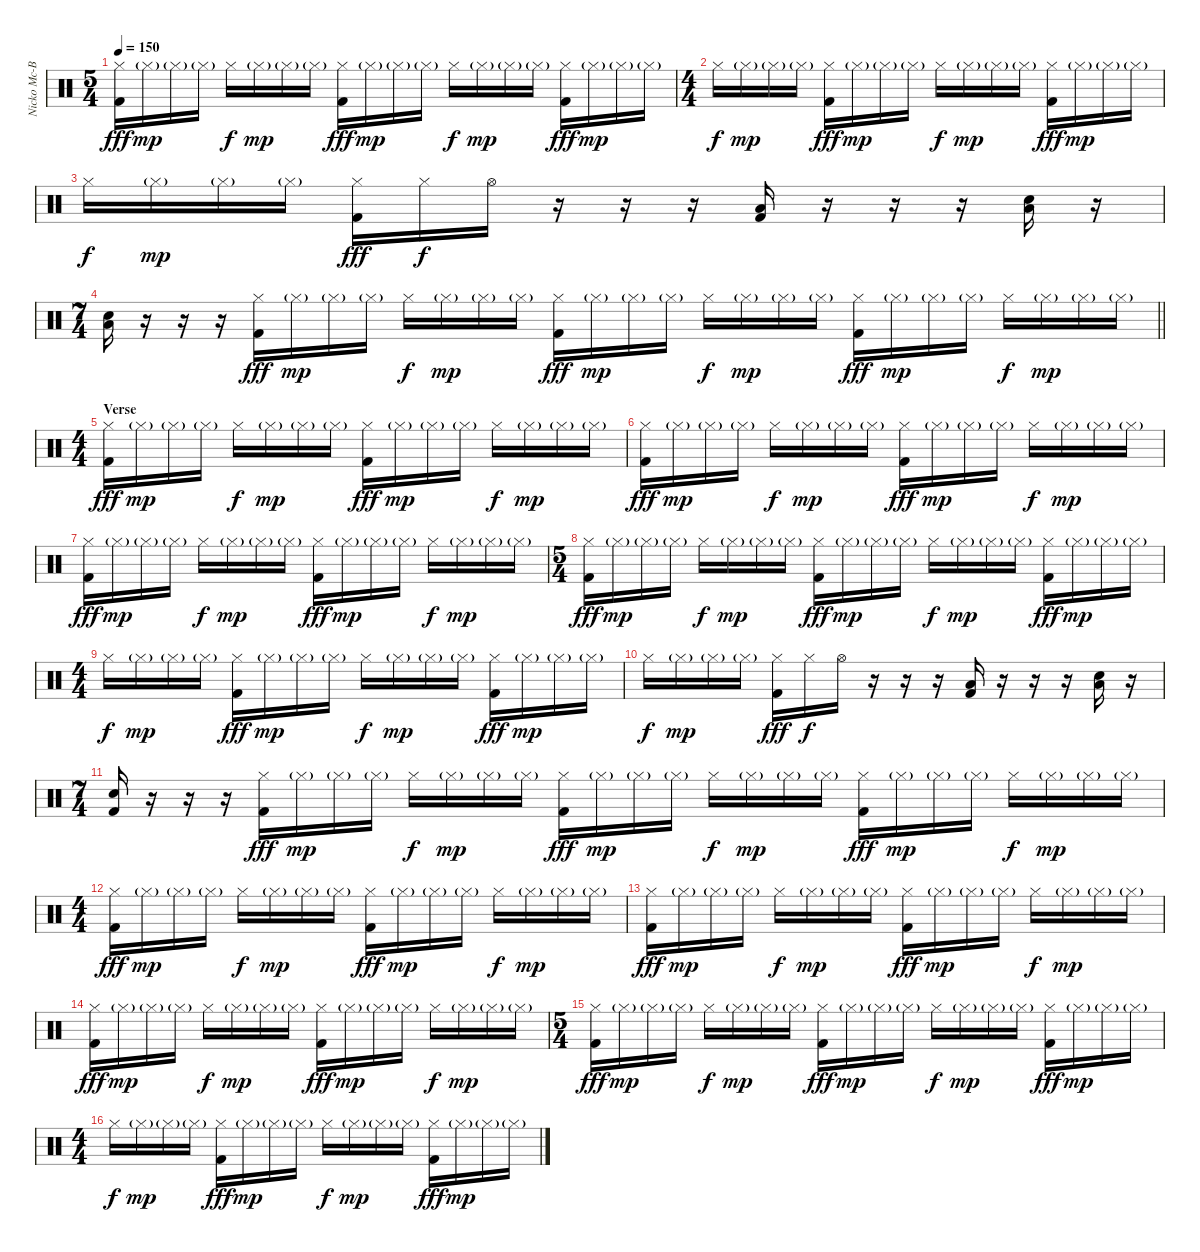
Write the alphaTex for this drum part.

\track ("Nicko Mc-Brain" "Nicko Mc-B") {instrument percussion}
\staff {score}
\articulation defaults
\ts (5 4)
\tempo 150
\clef neutral
\ks c
("Hi-Hat (closed)" "Kick (hit) 2").16{dy fff} "Hi-Hat (closed)"{g}.16{dy mp} "Hi-Hat (closed)"{g}.16 "Hi-Hat (closed)"{g}.16 "Hi-Hat (closed)".16{dy f} "Hi-Hat (closed)"{g}.16{dy mp} "Hi-Hat (closed)"{g}.16 "Hi-Hat (closed)"{g}.16 ("Hi-Hat (closed)" "Kick (hit) 2").16{dy fff} "Hi-Hat (closed)"{g}.16{dy mp} "Hi-Hat (closed)"{g}.16 "Hi-Hat (closed)"{g}.16 "Hi-Hat (closed)".16{dy f} "Hi-Hat (closed)"{g}.16{dy mp} "Hi-Hat (closed)"{g}.16 "Hi-Hat (closed)"{g}.16 ("Hi-Hat (closed)" "Kick (hit) 2").16{dy fff} "Hi-Hat (closed)"{g}.16{dy mp} "Hi-Hat (closed)"{g}.16 "Hi-Hat (closed)"{g}.16 |
\ts (4 4)
"Hi-Hat (closed)".16{dy f} "Hi-Hat (closed)"{g}.16{dy mp} "Hi-Hat (closed)"{g}.16 "Hi-Hat (closed)"{g}.16 ("Hi-Hat (closed)" "Kick (hit) 2").16{dy fff} "Hi-Hat (closed)"{g}.16{dy mp} "Hi-Hat (closed)"{g}.16 "Hi-Hat (closed)"{g}.16 "Hi-Hat (closed)".16{dy f} "Hi-Hat (closed)"{g}.16{dy mp} "Hi-Hat (closed)"{g}.16 "Hi-Hat (closed)"{g}.16 ("Hi-Hat (closed)" "Kick (hit) 2").16{dy fff} "Hi-Hat (closed)"{g}.16{dy mp} "Hi-Hat (closed)"{g}.16 "Hi-Hat (closed)"{g}.16 |
"Hi-Hat (closed)".16{dy f} "Hi-Hat (closed)"{g}.16{dy mp} "Hi-Hat (closed)"{g}.16 "Hi-Hat (closed)"{g}.16 ("Hi-Hat (closed)" "Kick (hit) 2").16{dy fff} "Hi-Hat (closed)".16{dy f} "Hi-Hat (open)".16 r.16 r.16 r.16 ("Low Floor Tom (hit)" "Kick (hit) 2").16 r.16 r.16 r.16 ("Low Floor Tom (hit)" "Snare (hit) 2").16 r.16 |
\ts (7 4)
\barLineRight lightlight
("Low Floor Tom (hit)" "Snare (hit) 2").16 r.16 r.16 r.16 ("Hi-Hat (closed)" "Kick (hit) 2").16{dy fff} "Hi-Hat (closed)"{g}.16{dy mp} "Hi-Hat (closed)"{g}.16 "Hi-Hat (closed)"{g}.16 "Hi-Hat (closed)".16{dy f} "Hi-Hat (closed)"{g}.16{dy mp} "Hi-Hat (closed)"{g}.16 "Hi-Hat (closed)"{g}.16 ("Hi-Hat (closed)" "Kick (hit) 2").16{dy fff} "Hi-Hat (closed)"{g}.16{dy mp} "Hi-Hat (closed)"{g}.16 "Hi-Hat (closed)"{g}.16 "Hi-Hat (closed)".16{dy f} "Hi-Hat (closed)"{g}.16{dy mp} "Hi-Hat (closed)"{g}.16 "Hi-Hat (closed)"{g}.16 ("Hi-Hat (closed)" "Kick (hit) 2").16{dy fff} "Hi-Hat (closed)"{g}.16{dy mp} "Hi-Hat (closed)"{g}.16 "Hi-Hat (closed)"{g}.16 "Hi-Hat (closed)".16{dy f} "Hi-Hat (closed)"{g}.16{dy mp} "Hi-Hat (closed)"{g}.16 "Hi-Hat (closed)"{g}.16 |
\ts (4 4)
\section ("" "Verse")
("Hi-Hat (closed)" "Kick (hit) 2").16{dy fff} "Hi-Hat (closed)"{g}.16{dy mp} "Hi-Hat (closed)"{g}.16 "Hi-Hat (closed)"{g}.16 "Hi-Hat (closed)".16{dy f} "Hi-Hat (closed)"{g}.16{dy mp} "Hi-Hat (closed)"{g}.16 "Hi-Hat (closed)"{g}.16 ("Hi-Hat (closed)" "Kick (hit) 2").16{dy fff} "Hi-Hat (closed)"{g}.16{dy mp} "Hi-Hat (closed)"{g}.16 "Hi-Hat (closed)"{g}.16 "Hi-Hat (closed)".16{dy f} "Hi-Hat (closed)"{g}.16{dy mp} "Hi-Hat (closed)"{g}.16 "Hi-Hat (closed)"{g}.16 |
("Hi-Hat (closed)" "Kick (hit) 2").16{dy fff} "Hi-Hat (closed)"{g}.16{dy mp} "Hi-Hat (closed)"{g}.16 "Hi-Hat (closed)"{g}.16 "Hi-Hat (closed)".16{dy f} "Hi-Hat (closed)"{g}.16{dy mp} "Hi-Hat (closed)"{g}.16 "Hi-Hat (closed)"{g}.16 ("Hi-Hat (closed)" "Kick (hit) 2").16{dy fff} "Hi-Hat (closed)"{g}.16{dy mp} "Hi-Hat (closed)"{g}.16 "Hi-Hat (closed)"{g}.16 "Hi-Hat (closed)".16{dy f} "Hi-Hat (closed)"{g}.16{dy mp} "Hi-Hat (closed)"{g}.16 "Hi-Hat (closed)"{g}.16 |
("Hi-Hat (closed)" "Kick (hit) 2").16{dy fff} "Hi-Hat (closed)"{g}.16{dy mp} "Hi-Hat (closed)"{g}.16 "Hi-Hat (closed)"{g}.16 "Hi-Hat (closed)".16{dy f} "Hi-Hat (closed)"{g}.16{dy mp} "Hi-Hat (closed)"{g}.16 "Hi-Hat (closed)"{g}.16 ("Hi-Hat (closed)" "Kick (hit) 2").16{dy fff} "Hi-Hat (closed)"{g}.16{dy mp} "Hi-Hat (closed)"{g}.16 "Hi-Hat (closed)"{g}.16 "Hi-Hat (closed)".16{dy f} "Hi-Hat (closed)"{g}.16{dy mp} "Hi-Hat (closed)"{g}.16 "Hi-Hat (closed)"{g}.16 |
\ts (5 4)
("Hi-Hat (closed)" "Kick (hit) 2").16{dy fff} "Hi-Hat (closed)"{g}.16{dy mp} "Hi-Hat (closed)"{g}.16 "Hi-Hat (closed)"{g}.16 "Hi-Hat (closed)".16{dy f} "Hi-Hat (closed)"{g}.16{dy mp} "Hi-Hat (closed)"{g}.16 "Hi-Hat (closed)"{g}.16 ("Hi-Hat (closed)" "Kick (hit) 2").16{dy fff} "Hi-Hat (closed)"{g}.16{dy mp} "Hi-Hat (closed)"{g}.16 "Hi-Hat (closed)"{g}.16 "Hi-Hat (closed)".16{dy f} "Hi-Hat (closed)"{g}.16{dy mp} "Hi-Hat (closed)"{g}.16 "Hi-Hat (closed)"{g}.16 ("Hi-Hat (closed)" "Kick (hit) 2").16{dy fff} "Hi-Hat (closed)"{g}.16{dy mp} "Hi-Hat (closed)"{g}.16 "Hi-Hat (closed)"{g}.16 |
\ts (4 4)
"Hi-Hat (closed)".16{dy f} "Hi-Hat (closed)"{g}.16{dy mp} "Hi-Hat (closed)"{g}.16 "Hi-Hat (closed)"{g}.16 ("Hi-Hat (closed)" "Kick (hit) 2").16{dy fff} "Hi-Hat (closed)"{g}.16{dy mp} "Hi-Hat (closed)"{g}.16 "Hi-Hat (closed)"{g}.16 "Hi-Hat (closed)".16{dy f} "Hi-Hat (closed)"{g}.16{dy mp} "Hi-Hat (closed)"{g}.16 "Hi-Hat (closed)"{g}.16 ("Hi-Hat (closed)" "Kick (hit) 2").16{dy fff} "Hi-Hat (closed)"{g}.16{dy mp} "Hi-Hat (closed)"{g}.16 "Hi-Hat (closed)"{g}.16 |
"Hi-Hat (closed)".16{dy f} "Hi-Hat (closed)"{g}.16{dy mp} "Hi-Hat (closed)"{g}.16 "Hi-Hat (closed)"{g}.16 ("Hi-Hat (closed)" "Kick (hit) 2").16{dy fff} "Hi-Hat (closed)".16{dy f} "Hi-Hat (open)".16 r.16 r.16 r.16 ("Low Floor Tom (hit)" "Kick (hit) 2").16 r.16 r.16 r.16 ("Low Floor Tom (hit)" "Snare (hit) 2").16 r.16 |
\ts (7 4)
("Snare (hit) 2" "Kick (hit) 2").16 r.16 r.16 r.16 ("Hi-Hat (closed)" "Kick (hit) 2").16{dy fff} "Hi-Hat (closed)"{g}.16{dy mp} "Hi-Hat (closed)"{g}.16 "Hi-Hat (closed)"{g}.16 "Hi-Hat (closed)".16{dy f} "Hi-Hat (closed)"{g}.16{dy mp} "Hi-Hat (closed)"{g}.16 "Hi-Hat (closed)"{g}.16 ("Hi-Hat (closed)" "Kick (hit) 2").16{dy fff} "Hi-Hat (closed)"{g}.16{dy mp} "Hi-Hat (closed)"{g}.16 "Hi-Hat (closed)"{g}.16 "Hi-Hat (closed)".16{dy f} "Hi-Hat (closed)"{g}.16{dy mp} "Hi-Hat (closed)"{g}.16 "Hi-Hat (closed)"{g}.16 ("Hi-Hat (closed)" "Kick (hit) 2").16{dy fff} "Hi-Hat (closed)"{g}.16{dy mp} "Hi-Hat (closed)"{g}.16 "Hi-Hat (closed)"{g}.16 "Hi-Hat (closed)".16{dy f} "Hi-Hat (closed)"{g}.16{dy mp} "Hi-Hat (closed)"{g}.16 "Hi-Hat (closed)"{g}.16 |
\ts (4 4)
("Hi-Hat (closed)" "Kick (hit) 2").16{dy fff} "Hi-Hat (closed)"{g}.16{dy mp} "Hi-Hat (closed)"{g}.16 "Hi-Hat (closed)"{g}.16 "Hi-Hat (closed)".16{dy f} "Hi-Hat (closed)"{g}.16{dy mp} "Hi-Hat (closed)"{g}.16 "Hi-Hat (closed)"{g}.16 ("Hi-Hat (closed)" "Kick (hit) 2").16{dy fff} "Hi-Hat (closed)"{g}.16{dy mp} "Hi-Hat (closed)"{g}.16 "Hi-Hat (closed)"{g}.16 "Hi-Hat (closed)".16{dy f} "Hi-Hat (closed)"{g}.16{dy mp} "Hi-Hat (closed)"{g}.16 "Hi-Hat (closed)"{g}.16 |
("Hi-Hat (closed)" "Kick (hit) 2").16{dy fff} "Hi-Hat (closed)"{g}.16{dy mp} "Hi-Hat (closed)"{g}.16 "Hi-Hat (closed)"{g}.16 "Hi-Hat (closed)".16{dy f} "Hi-Hat (closed)"{g}.16{dy mp} "Hi-Hat (closed)"{g}.16 "Hi-Hat (closed)"{g}.16 ("Hi-Hat (closed)" "Kick (hit) 2").16{dy fff} "Hi-Hat (closed)"{g}.16{dy mp} "Hi-Hat (closed)"{g}.16 "Hi-Hat (closed)"{g}.16 "Hi-Hat (closed)".16{dy f} "Hi-Hat (closed)"{g}.16{dy mp} "Hi-Hat (closed)"{g}.16 "Hi-Hat (closed)"{g}.16 |
("Hi-Hat (closed)" "Kick (hit) 2").16{dy fff} "Hi-Hat (closed)"{g}.16{dy mp} "Hi-Hat (closed)"{g}.16 "Hi-Hat (closed)"{g}.16 "Hi-Hat (closed)".16{dy f} "Hi-Hat (closed)"{g}.16{dy mp} "Hi-Hat (closed)"{g}.16 "Hi-Hat (closed)"{g}.16 ("Hi-Hat (closed)" "Kick (hit) 2").16{dy fff} "Hi-Hat (closed)"{g}.16{dy mp} "Hi-Hat (closed)"{g}.16 "Hi-Hat (closed)"{g}.16 "Hi-Hat (closed)".16{dy f} "Hi-Hat (closed)"{g}.16{dy mp} "Hi-Hat (closed)"{g}.16 "Hi-Hat (closed)"{g}.16 |
\ts (5 4)
("Hi-Hat (closed)" "Kick (hit) 2").16{dy fff} "Hi-Hat (closed)"{g}.16{dy mp} "Hi-Hat (closed)"{g}.16 "Hi-Hat (closed)"{g}.16 "Hi-Hat (closed)".16{dy f} "Hi-Hat (closed)"{g}.16{dy mp} "Hi-Hat (closed)"{g}.16 "Hi-Hat (closed)"{g}.16 ("Hi-Hat (closed)" "Kick (hit) 2").16{dy fff} "Hi-Hat (closed)"{g}.16{dy mp} "Hi-Hat (closed)"{g}.16 "Hi-Hat (closed)"{g}.16 "Hi-Hat (closed)".16{dy f} "Hi-Hat (closed)"{g}.16{dy mp} "Hi-Hat (closed)"{g}.16 "Hi-Hat (closed)"{g}.16 ("Hi-Hat (closed)" "Kick (hit) 2").16{dy fff} "Hi-Hat (closed)"{g}.16{dy mp} "Hi-Hat (closed)"{g}.16 "Hi-Hat (closed)"{g}.16 |
\ts (4 4)
"Hi-Hat (closed)".16{dy f} "Hi-Hat (closed)"{g}.16{dy mp} "Hi-Hat (closed)"{g}.16 "Hi-Hat (closed)"{g}.16 ("Hi-Hat (closed)" "Kick (hit) 2").16{dy fff} "Hi-Hat (closed)"{g}.16{dy mp} "Hi-Hat (closed)"{g}.16 "Hi-Hat (closed)"{g}.16 "Hi-Hat (closed)".16{dy f} "Hi-Hat (closed)"{g}.16{dy mp} "Hi-Hat (closed)"{g}.16 "Hi-Hat (closed)"{g}.16 ("Hi-Hat (closed)" "Kick (hit) 2").16{dy fff} "Hi-Hat (closed)"{g}.16{dy mp} "Hi-Hat (closed)"{g}.16 "Hi-Hat (closed)"{g}.16
